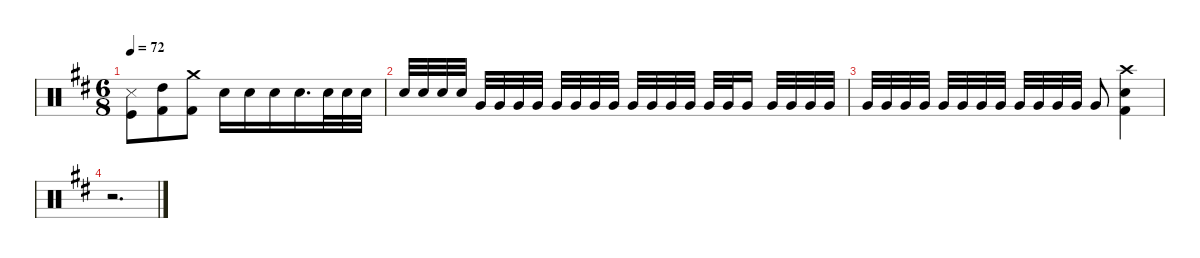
\defaultSystemsLayout 4
\hideDynamics
\bracketExtendMode groupsimilarinstruments
\singleTrackTrackNamePolicy hidden
\multiTrackTrackNamePolicy hidden
\firstSystemTrackNameMode fullname
\firstSystemTrackNameOrientation horizontal
\otherSystemsTrackNameOrientation horizontal
\track ("Drumkit" "drm.") {defaultSystemsLayout 4 instrument percussion}
\staff {score}
\articulation defaults
\ts (6 8)
\tempo 72
\clef neutral
\ks bminor
("Kick (hit)"{acc forcenatural} "Snare (side stick) 3"{acc forcenatural}).8{dy ff beam Down} ("Kick (hit) 2"{acc forcenatural} "High Tom (hit)"{acc forcenatural}).8{dy f beam Down} ("Crash medium (hit)"{acc forcenatural} "Kick (hit) 2"{acc forcenatural}).8{dy fff beam Down} "Snare (hit) 2"{acc forcenatural}.16{dy mf beam Down} "Snare (hit) 2"{acc forcenatural}.16{dy mp beam Down} "Snare (hit) 2"{acc forcenatural}.16{beam Down} "Snare (hit) 2"{acc forcenatural}.16{d dy ff beam Down} "Snare (hit) 2"{acc forcenatural}.32{beam Down} "Snare (hit) 2"{acc forcenatural}.32{dy f beam Down} "Snare (hit) 2"{acc forcenatural}.32{dy ff beam Down} |
"Snare (hit) 2"{acc forcenatural}.32{beam Up} "Snare (hit) 2"{acc forcenatural}.32{dy f beam Up} "Snare (hit) 2"{acc forcenatural}.32{dy ff beam Up} "Snare (hit) 2"{acc forcenatural}.32{dy f beam Up beam split} "Very Low Tom (hit)"{acc forcenatural}.32{dy ff beam Up} "Very Low Tom (hit)"{acc forcenatural}.32{dy f beam Up} "Very Low Tom (hit)"{acc forcenatural}.32{dy ff beam Up} "Very Low Tom (hit)"{acc forcenatural}.32{dy mf beam Up beam split} "Very Low Tom (hit)"{acc forcenatural}.32{dy ff beam Up} "Very Low Tom (hit)"{acc forcenatural}.32{dy f beam Up} "Very Low Tom (hit)"{acc forcenatural}.32{dy ff beam Up} "Very Low Tom (hit)"{acc forcenatural}.32{dy mf beam Up} "Very Low Tom (hit)"{acc forcenatural}.32{dy ff beam Up} "Very Low Tom (hit)"{acc forcenatural}.32{dy f beam Up} "Very Low Tom (hit)"{acc forcenatural}.32{dy ff beam Up} "Very Low Tom (hit)"{acc forcenatural}.32{dy mf beam Up beam split} "Very Low Tom (hit)"{acc forcenatural}.32{dy ff beam Up} "Very Low Tom (hit)"{acc forcenatural}.32{dy mf beam Up} "Very Low Tom (hit)"{acc forcenatural}.16{dy ff beam Up beam split} "Very Low Tom (hit)"{acc forcenatural}.32{beam Up} "Very Low Tom (hit)"{acc forcenatural}.32{dy f beam Up} "Very Low Tom (hit)"{acc forcenatural}.32{dy ff beam Up} "Very Low Tom (hit)"{acc forcenatural}.32{dy mf beam Up} |
"Very Low Tom (hit)"{acc forcenatural}.32{dy ff beam Up} "Very Low Tom (hit)"{acc forcenatural}.32{dy f beam Up} "Very Low Tom (hit)"{acc forcenatural}.32{dy ff beam Up} "Very Low Tom (hit)"{acc forcenatural}.32{dy f beam Up beam split} "Very Low Tom (hit)"{acc forcenatural}.32{dy ff beam Up} "Very Low Tom (hit)"{acc forcenatural}.32{dy f beam Up} "Very Low Tom (hit)"{acc forcenatural}.32{dy ff beam Up} "Very Low Tom (hit)"{acc forcenatural}.32{dy f beam Up beam split} "Very Low Tom (hit)"{acc forcenatural}.32{dy ff beam Up} "Very Low Tom (hit)"{acc forcenatural}.32{beam Up} "Very Low Tom (hit)"{acc forcenatural}.32{beam Up} "Very Low Tom (hit)"{acc forcenatural}.32{beam Up} "Very Low Tom (hit)"{acc forcenatural}.8{dy fff beam Up} ("Snare (hit) 2"{acc forcenatural} "Kick (hit) 2"{acc forcenatural} "Crash high (hit)"{acc #}).4{dy ff beam Down} |
r.2{d beam Down}
